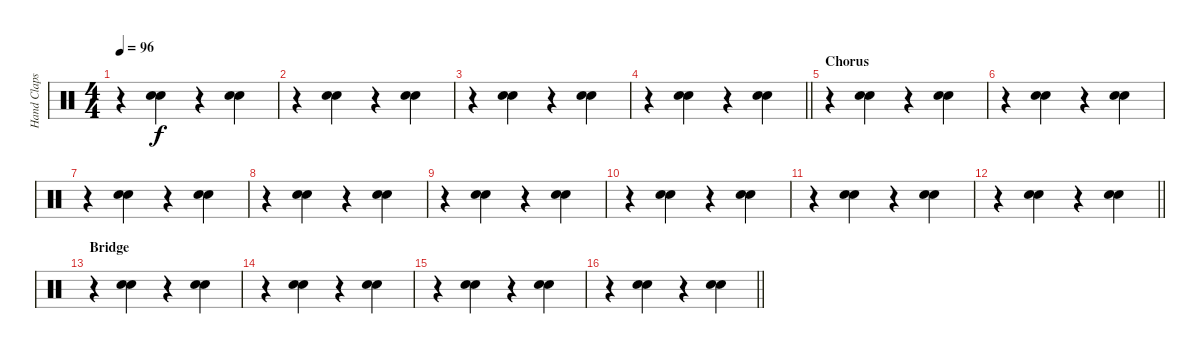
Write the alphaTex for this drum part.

\track ("Hand Claps" "Hand Claps") {instrument percussion}
\staff {score}
\articulation defaults
\ts (4 4)
\tempo 96
\clef neutral
\ks c
r.4{dy f} ("Hand Clap (hit)" "Hand Clap (hit)").4 r.4 ("Hand Clap (hit)" "Hand Clap (hit)").4 |
r.4 ("Hand Clap (hit)" "Hand Clap (hit)").4 r.4 ("Hand Clap (hit)" "Hand Clap (hit)").4 |
r.4 ("Hand Clap (hit)" "Hand Clap (hit)").4 r.4 ("Hand Clap (hit)" "Hand Clap (hit)").4 |
\barLineRight lightlight
r.4 ("Hand Clap (hit)" "Hand Clap (hit)").4 r.4 ("Hand Clap (hit)" "Hand Clap (hit)").4 |
\section ("" "Chorus")
r.4 ("Hand Clap (hit)" "Hand Clap (hit)").4 r.4 ("Hand Clap (hit)" "Hand Clap (hit)").4 |
r.4 ("Hand Clap (hit)" "Hand Clap (hit)").4 r.4 ("Hand Clap (hit)" "Hand Clap (hit)").4 |
r.4 ("Hand Clap (hit)" "Hand Clap (hit)").4 r.4 ("Hand Clap (hit)" "Hand Clap (hit)").4 |
r.4 ("Hand Clap (hit)" "Hand Clap (hit)").4 r.4 ("Hand Clap (hit)" "Hand Clap (hit)").4 |
r.4 ("Hand Clap (hit)" "Hand Clap (hit)").4 r.4 ("Hand Clap (hit)" "Hand Clap (hit)").4 |
r.4 ("Hand Clap (hit)" "Hand Clap (hit)").4 r.4 ("Hand Clap (hit)" "Hand Clap (hit)").4 |
r.4 ("Hand Clap (hit)" "Hand Clap (hit)").4 r.4 ("Hand Clap (hit)" "Hand Clap (hit)").4 |
\barLineRight lightlight
r.4 ("Hand Clap (hit)" "Hand Clap (hit)").4 r.4 ("Hand Clap (hit)" "Hand Clap (hit)").4 |
\section ("" "Bridge")
r.4 ("Hand Clap (hit)" "Hand Clap (hit)").4 r.4 ("Hand Clap (hit)" "Hand Clap (hit)").4 |
r.4 ("Hand Clap (hit)" "Hand Clap (hit)").4 r.4 ("Hand Clap (hit)" "Hand Clap (hit)").4 |
r.4 ("Hand Clap (hit)" "Hand Clap (hit)").4 r.4 ("Hand Clap (hit)" "Hand Clap (hit)").4 |
\barLineRight lightlight
r.4 ("Hand Clap (hit)" "Hand Clap (hit)").4 r.4 ("Hand Clap (hit)" "Hand Clap (hit)").4
